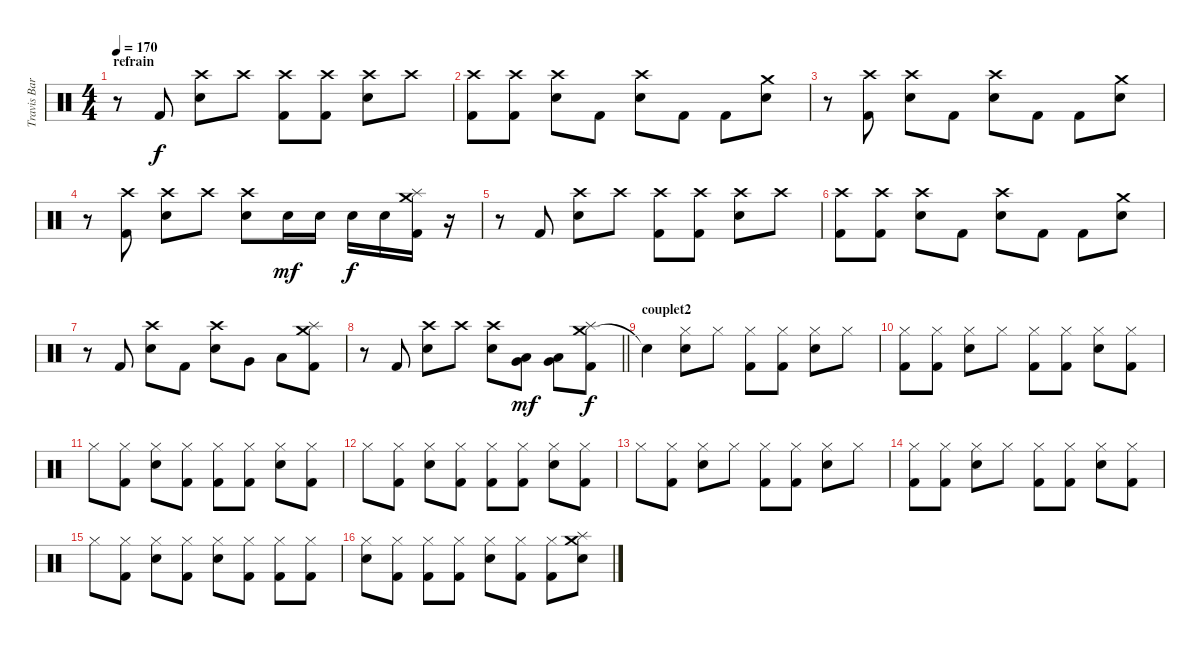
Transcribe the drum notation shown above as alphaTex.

\track ("Travis Barker" "Travis Bar") {instrument percussion}
\staff {score}
\articulation defaults
\ts (4 4)
\section ("" "refrain")
\tempo 170
\clef neutral
\ks c
r.8{dy f} "Kick (hit) 2".8 ("Crash high (hit)" "Electric Snare (hit)").8 "Crash high (hit)".8 ("Crash high (hit)" "Kick (hit) 2").8 ("Crash high (hit)" "Kick (hit) 2").8 ("Crash high (hit)" "Electric Snare (hit)").8 "Crash high (hit)".8 |
("Crash high (hit)" "Kick (hit) 2").8 ("Crash high (hit)" "Kick (hit) 2").8 ("Crash high (hit)" "Electric Snare (hit)").8 "Kick (hit) 2".8 ("Crash high (hit)" "Electric Snare (hit)").8 "Kick (hit) 2".8 "Kick (hit) 2".8 ("Crash medium (hit)" "Electric Snare (hit)").8 |
r.8 ("Crash high (hit)" "Kick (hit) 2").8 ("Crash high (hit)" "Electric Snare (hit)").8 "Kick (hit) 2".8 ("Crash high (hit)" "Electric Snare (hit)").8 "Kick (hit) 2".8 "Kick (hit) 2".8 ("Crash medium (hit)" "Electric Snare (hit)").8 |
r.8 ("Crash high (hit)" "Kick (hit) 2").8 ("Crash high (hit)" "Electric Snare (hit)").8 "Crash high (hit)".8 ("Crash high (hit)" "Electric Snare (hit)").8 "Electric Snare (hit)".16{dy mf} "Electric Snare (hit)".16 "Electric Snare (hit)".16{dy f} "Electric Snare (hit)".16 ("Crash medium (hit)" "Kick (hit) 2" "Splash (hit)").16 r.16 |
r.8 "Kick (hit) 2".8 ("Crash high (hit)" "Electric Snare (hit)").8 "Crash high (hit)".8 ("Crash high (hit)" "Kick (hit) 2").8 ("Crash high (hit)" "Kick (hit) 2").8 ("Crash high (hit)" "Electric Snare (hit)").8 "Crash high (hit)".8 |
("Crash high (hit)" "Kick (hit) 2").8 ("Crash high (hit)" "Kick (hit) 2").8 ("Crash high (hit)" "Electric Snare (hit)").8 "Kick (hit) 2".8 ("Crash high (hit)" "Electric Snare (hit)").8 "Kick (hit) 2".8 "Kick (hit) 2".8 ("Crash medium (hit)" "Electric Snare (hit)").8 |
r.8 "Kick (hit) 2".8 ("Crash high (hit)" "Electric Snare (hit)").8 "Kick (hit) 2".8 ("Crash high (hit)" "Electric Snare (hit)").8 "Very Low Tom (hit)".8 "Low Floor Tom (hit)".8 ("Crash medium (hit)" "Kick (hit) 2" "Splash (hit)").8 |
\barLineRight lightlight
r.8 "Kick (hit) 2".8 ("Crash high (hit)" "Electric Snare (hit)").8 "Crash high (hit)".8 ("Crash high (hit)" "Electric Snare (hit)").8 ("Very Low Tom (hit)" "Low Floor Tom (hit)").8{dy mf} ("Very Low Tom (hit)" "Low Floor Tom (hit)").8 ("Crash medium (hit)" "Kick (hit) 2" "Splash (hit)").8{dy f} |
\section ("" "couplet2")
"Snare (hit)"{t}.4 ("Hi-Hat (closed)" "Electric Snare (hit)").8 "Hi-Hat (closed)".8 ("Hi-Hat (closed)" "Kick (hit) 2").8 ("Hi-Hat (closed)" "Kick (hit) 2").8 ("Hi-Hat (closed)" "Electric Snare (hit)").8 "Hi-Hat (closed)".8 |
("Hi-Hat (closed)" "Kick (hit) 2").8 ("Hi-Hat (closed)" "Kick (hit) 2").8 ("Hi-Hat (closed)" "Electric Snare (hit)").8 "Hi-Hat (closed)".8 ("Hi-Hat (closed)" "Kick (hit) 2").8 ("Hi-Hat (closed)" "Kick (hit) 2").8 ("Hi-Hat (closed)" "Electric Snare (hit)").8 ("Hi-Hat (closed)" "Kick (hit) 2").8 |
"Hi-Hat (closed)".8 ("Hi-Hat (closed)" "Kick (hit) 2").8 ("Hi-Hat (closed)" "Electric Snare (hit)").8 ("Hi-Hat (closed)" "Kick (hit) 2").8 ("Hi-Hat (closed)" "Kick (hit) 2").8 ("Hi-Hat (closed)" "Kick (hit) 2").8 ("Hi-Hat (closed)" "Electric Snare (hit)").8 ("Hi-Hat (closed)" "Kick (hit) 2").8 |
"Hi-Hat (closed)".8 ("Hi-Hat (closed)" "Kick (hit) 2").8 ("Hi-Hat (closed)" "Electric Snare (hit)").8 ("Hi-Hat (closed)" "Kick (hit) 2").8 ("Hi-Hat (closed)" "Kick (hit) 2").8 ("Hi-Hat (closed)" "Kick (hit) 2").8 ("Hi-Hat (closed)" "Electric Snare (hit)").8 ("Hi-Hat (closed)" "Kick (hit) 2").8 |
"Hi-Hat (closed)".8 ("Hi-Hat (closed)" "Kick (hit) 2").8 ("Hi-Hat (closed)" "Electric Snare (hit)").8 "Hi-Hat (closed)".8 ("Hi-Hat (closed)" "Kick (hit) 2").8 ("Hi-Hat (closed)" "Kick (hit) 2").8 ("Hi-Hat (closed)" "Electric Snare (hit)").8 "Hi-Hat (closed)".8 |
("Hi-Hat (closed)" "Kick (hit) 2").8 ("Hi-Hat (closed)" "Kick (hit) 2").8 ("Hi-Hat (closed)" "Electric Snare (hit)").8 "Hi-Hat (closed)".8 ("Hi-Hat (closed)" "Kick (hit) 2").8 ("Hi-Hat (closed)" "Kick (hit) 2").8 ("Hi-Hat (closed)" "Electric Snare (hit)").8 ("Hi-Hat (closed)" "Kick (hit) 2").8 |
"Hi-Hat (closed)".8 ("Hi-Hat (closed)" "Kick (hit) 2").8 ("Hi-Hat (closed)" "Electric Snare (hit)").8 ("Hi-Hat (closed)" "Kick (hit) 2").8 ("Hi-Hat (closed)" "Electric Snare (hit)").8 ("Hi-Hat (closed)" "Kick (hit) 2").8 ("Hi-Hat (closed)" "Kick (hit) 2").8 ("Hi-Hat (closed)" "Kick (hit) 2").8 |
("Hi-Hat (closed)" "Electric Snare (hit)").8 ("Hi-Hat (closed)" "Kick (hit) 2").8 ("Hi-Hat (closed)" "Kick (hit) 2").8 ("Hi-Hat (closed)" "Kick (hit) 2").8 ("Hi-Hat (closed)" "Electric Snare (hit)").8 ("Hi-Hat (closed)" "Kick (hit) 2").8 ("Hi-Hat (closed)" "Kick (hit) 2").8 ("Crash medium (hit)" "Electric Snare (hit)" "Splash (hit)").8
